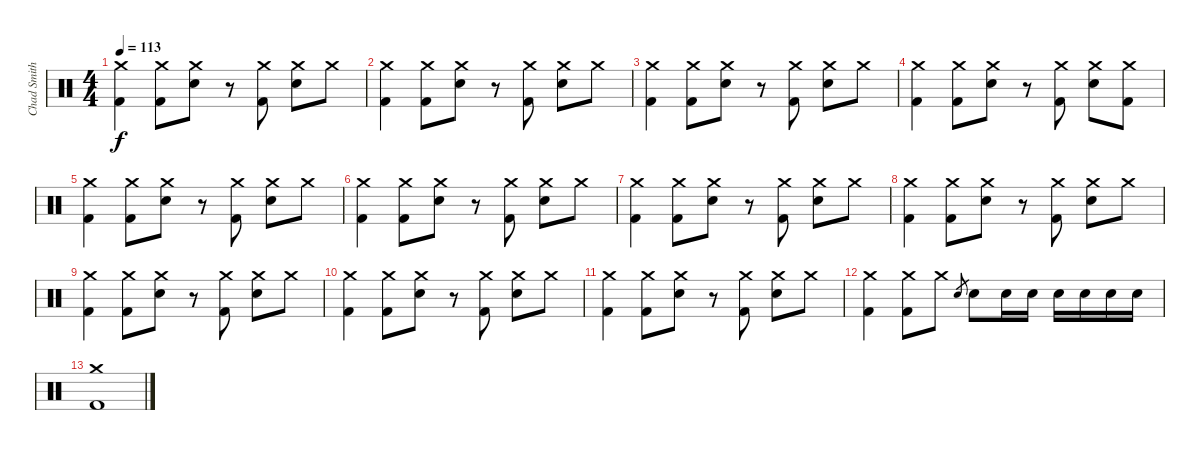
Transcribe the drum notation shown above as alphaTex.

\track ("Chad Smith" "Chad Smith") {instrument percussion}
\staff {score}
\articulation defaults
\ts (4 4)
\tempo 113
\clef neutral
\ks c
("Crash medium (hit)" "Kick (hit) 2").4{dy f} ("Crash medium (hit)" "Kick (hit) 2").8 ("Crash medium (hit)" "Snare (hit) 2").8 r.8 ("Crash medium (hit)" "Kick (hit) 2").8 ("Crash medium (hit)" "Snare (hit) 2").8 "Crash medium (hit)".8 |
("Crash medium (hit)" "Kick (hit) 2").4 ("Crash medium (hit)" "Kick (hit) 2").8 ("Crash medium (hit)" "Snare (hit) 2").8 r.8 ("Crash medium (hit)" "Kick (hit) 2").8 ("Crash medium (hit)" "Snare (hit) 2").8 "Crash medium (hit)".8 |
("Crash medium (hit)" "Kick (hit) 2").4 ("Crash medium (hit)" "Kick (hit) 2").8 ("Crash medium (hit)" "Snare (hit) 2").8 r.8 ("Crash medium (hit)" "Kick (hit) 2").8 ("Crash medium (hit)" "Snare (hit) 2").8 "Crash medium (hit)".8 |
("Crash medium (hit)" "Kick (hit) 2").4 ("Crash medium (hit)" "Kick (hit) 2").8 ("Crash medium (hit)" "Snare (hit) 2").8 r.8 ("Crash medium (hit)" "Kick (hit) 2").8 ("Crash medium (hit)" "Snare (hit) 2").8 ("Crash medium (hit)" "Kick (hit) 2").8 |
("Crash medium (hit)" "Kick (hit) 2").4 ("Crash medium (hit)" "Kick (hit) 2").8 ("Crash medium (hit)" "Snare (hit) 2").8 r.8 ("Crash medium (hit)" "Kick (hit) 2").8 ("Crash medium (hit)" "Snare (hit) 2").8 "Crash medium (hit)".8 |
("Crash medium (hit)" "Kick (hit) 2").4 ("Crash medium (hit)" "Kick (hit) 2").8 ("Crash medium (hit)" "Snare (hit) 2").8 r.8 ("Crash medium (hit)" "Kick (hit) 2").8 ("Crash medium (hit)" "Snare (hit) 2").8 "Crash medium (hit)".8 |
("Crash medium (hit)" "Kick (hit) 2").4 ("Crash medium (hit)" "Kick (hit) 2").8 ("Crash medium (hit)" "Snare (hit) 2").8 r.8 ("Crash medium (hit)" "Kick (hit) 2").8 ("Crash medium (hit)" "Snare (hit) 2").8 "Crash medium (hit)".8 |
("Crash medium (hit)" "Kick (hit) 2").4 ("Crash medium (hit)" "Kick (hit) 2").8 ("Crash medium (hit)" "Snare (hit) 2").8 r.8 ("Crash medium (hit)" "Kick (hit) 2").8 ("Crash medium (hit)" "Snare (hit) 2").8 "Crash medium (hit)".8 |
("Crash medium (hit)" "Kick (hit) 2").4 ("Crash medium (hit)" "Kick (hit) 2").8 ("Crash medium (hit)" "Snare (hit) 2").8 r.8 ("Crash medium (hit)" "Kick (hit) 2").8 ("Crash medium (hit)" "Snare (hit) 2").8 "Crash medium (hit)".8 |
("Crash medium (hit)" "Kick (hit) 2").4 ("Crash medium (hit)" "Kick (hit) 2").8 ("Crash medium (hit)" "Snare (hit) 2").8 r.8 ("Crash medium (hit)" "Kick (hit) 2").8 ("Crash medium (hit)" "Snare (hit) 2").8 "Crash medium (hit)".8 |
("Crash medium (hit)" "Kick (hit) 2").4 ("Crash medium (hit)" "Kick (hit) 2").8 ("Crash medium (hit)" "Snare (hit) 2").8 r.8 ("Crash medium (hit)" "Kick (hit) 2").8 ("Crash medium (hit)" "Snare (hit) 2").8 "Crash medium (hit)".8 |
("Crash medium (hit)" "Kick (hit) 2").4 ("Crash medium (hit)" "Kick (hit) 2").8 "Crash medium (hit)".8 "Snare (hit) 2".8{gr} "Snare (hit) 2".8 "Snare (hit) 2".16 "Snare (hit) 2".16 "Snare (hit) 2".16 "Snare (hit) 2".16 "Snare (hit) 2".16 "Snare (hit) 2".16 |
("Crash medium (hit)" "Kick (hit) 2").1
